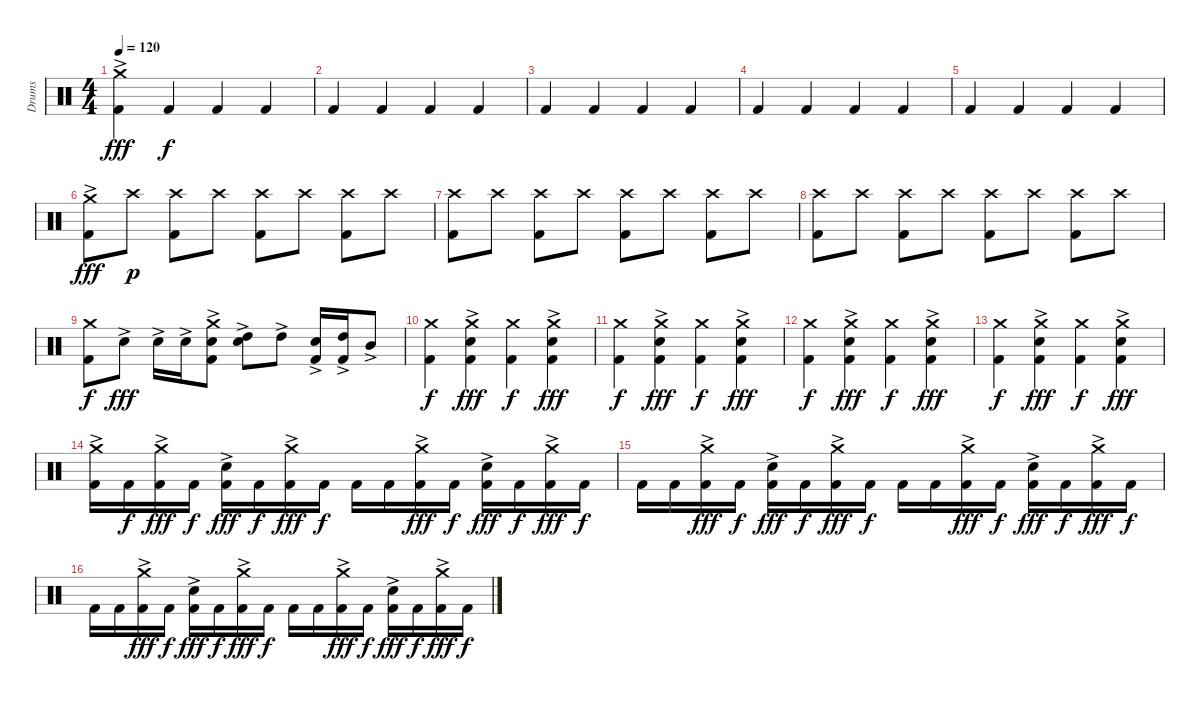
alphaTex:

\track ("Drums" "Drums") {instrument percussion}
\staff {score}
\articulation defaults
\ts (4 4)
\tempo 120
\clef neutral
\ks c
("Crash medium (hit)"{ac} "Kick (hit) 2").4{dy fff} "Kick (hit) 2".4{dy f} "Kick (hit) 2".4 "Kick (hit) 2".4 |
"Kick (hit) 2".4 "Kick (hit) 2".4 "Kick (hit) 2".4 "Kick (hit) 2".4 |
"Kick (hit) 2".4 "Kick (hit) 2".4 "Kick (hit) 2".4 "Kick (hit) 2".4 |
"Kick (hit) 2".4 "Kick (hit) 2".4 "Kick (hit) 2".4 "Kick (hit) 2".4 |
"Kick (hit) 2".4 "Kick (hit) 2".4 "Kick (hit) 2".4 "Kick (hit) 2".4 |
("Crash medium (hit)"{ac} "Kick (hit) 2").8{dy fff} "Crash high (hit)".8{dy p} ("Crash high (hit)" "Kick (hit) 2").8 "Crash high (hit)".8 ("Crash high (hit)" "Kick (hit) 2").8 "Crash high (hit)".8 ("Crash high (hit)" "Kick (hit) 2").8 "Crash high (hit)".8 |
("Crash high (hit)" "Kick (hit) 2").8 "Crash high (hit)".8 ("Crash high (hit)" "Kick (hit) 2").8 "Crash high (hit)".8 ("Crash high (hit)" "Kick (hit) 2").8 "Crash high (hit)".8 ("Crash high (hit)" "Kick (hit) 2").8 "Crash high (hit)".8 |
("Crash high (hit)" "Kick (hit) 2").8 "Crash high (hit)".8 ("Crash high (hit)" "Kick (hit) 2").8 "Crash high (hit)".8 ("Crash high (hit)" "Kick (hit) 2").8 "Crash high (hit)".8 ("Crash high (hit)" "Kick (hit) 2").8 "Crash high (hit)".8 |
("Crash medium (hit)" "Kick (hit) 2").8{dy f} "Electric Snare (hit)"{ac}.8{dy fff} "Electric Snare (hit)"{ac}.16 "Electric Snare (hit)"{ac}.16 ("Crash medium (hit)" "Electric Snare (hit)"{ac} "Kick (hit) 2").8 ("Electric Snare (hit)"{ac} "High Tom (hit)"{ac}).8 "High Tom (hit)"{ac}.8 ("Electric Snare (hit)"{ac} "Kick (hit) 2").16 ("High Tom (hit)"{ac} "Kick (hit) 2").16 "Mid Tom (hit)"{ac}.8 |
("Crash medium (hit)" "Kick (hit) 2").4{dy f} ("Crash medium (hit)" "Electric Snare (hit)"{ac} "Kick (hit) 2").4{dy fff} ("Crash medium (hit)" "Kick (hit) 2").4{dy f} ("Crash medium (hit)" "Electric Snare (hit)"{ac} "Kick (hit) 2").4{dy fff} |
("Crash medium (hit)" "Kick (hit) 2").4{dy f} ("Crash medium (hit)" "Electric Snare (hit)"{ac} "Kick (hit) 2").4{dy fff} ("Crash medium (hit)" "Kick (hit) 2").4{dy f} ("Crash medium (hit)" "Electric Snare (hit)"{ac} "Kick (hit) 2").4{dy fff} |
("Crash medium (hit)" "Kick (hit) 2").4{dy f} ("Crash medium (hit)" "Electric Snare (hit)"{ac} "Kick (hit) 2").4{dy fff} ("Crash medium (hit)" "Kick (hit) 2").4{dy f} ("Crash medium (hit)" "Electric Snare (hit)"{ac} "Kick (hit) 2").4{dy fff} |
("Crash medium (hit)" "Kick (hit) 2").4{dy f} ("Crash medium (hit)" "Electric Snare (hit)"{ac} "Kick (hit) 2").4{dy fff} ("Crash medium (hit)" "Kick (hit) 2").4{dy f} ("Crash medium (hit)" "Electric Snare (hit)"{ac} "Kick (hit) 2").4{dy fff} |
("Crash medium (hit)"{ac} "Kick (hit) 2").16 "Kick (hit) 2".16{dy f} ("Crash medium (hit)"{ac} "Kick (hit) 2").16{dy fff} "Kick (hit) 2".16{dy f} ("Electric Snare (hit)"{ac} "Kick (hit) 2").16{dy fff} "Kick (hit) 2".16{dy f} ("Crash medium (hit)"{ac} "Kick (hit) 2").16{dy fff} "Kick (hit) 2".16{dy f} "Kick (hit) 2".16 "Kick (hit) 2".16 ("Crash medium (hit)"{ac} "Kick (hit) 2").16{dy fff} "Kick (hit) 2".16{dy f} ("Electric Snare (hit)"{ac} "Kick (hit) 2").16{dy fff} "Kick (hit) 2".16{dy f} ("Crash medium (hit)"{ac} "Kick (hit) 2").16{dy fff} "Kick (hit) 2".16{dy f} |
"Kick (hit) 2".16 "Kick (hit) 2".16 ("Crash medium (hit)"{ac} "Kick (hit) 2").16{dy fff} "Kick (hit) 2".16{dy f} ("Electric Snare (hit)"{ac} "Kick (hit) 2").16{dy fff} "Kick (hit) 2".16{dy f} ("Crash medium (hit)"{ac} "Kick (hit) 2").16{dy fff} "Kick (hit) 2".16{dy f} "Kick (hit) 2".16 "Kick (hit) 2".16 ("Crash medium (hit)"{ac} "Kick (hit) 2").16{dy fff} "Kick (hit) 2".16{dy f} ("Electric Snare (hit)"{ac} "Kick (hit) 2").16{dy fff} "Kick (hit) 2".16{dy f} ("Crash medium (hit)"{ac} "Kick (hit) 2").16{dy fff} "Kick (hit) 2".16{dy f} |
"Kick (hit) 2".16 "Kick (hit) 2".16 ("Crash medium (hit)"{ac} "Kick (hit) 2").16{dy fff} "Kick (hit) 2".16{dy f} ("Electric Snare (hit)"{ac} "Kick (hit) 2").16{dy fff} "Kick (hit) 2".16{dy f} ("Crash medium (hit)"{ac} "Kick (hit) 2").16{dy fff} "Kick (hit) 2".16{dy f} "Kick (hit) 2".16 "Kick (hit) 2".16 ("Crash medium (hit)"{ac} "Kick (hit) 2").16{dy fff} "Kick (hit) 2".16{dy f} ("Electric Snare (hit)"{ac} "Kick (hit) 2").16{dy fff} "Kick (hit) 2".16{dy f} ("Crash medium (hit)"{ac} "Kick (hit) 2").16{dy fff} "Kick (hit) 2".16{dy f}
